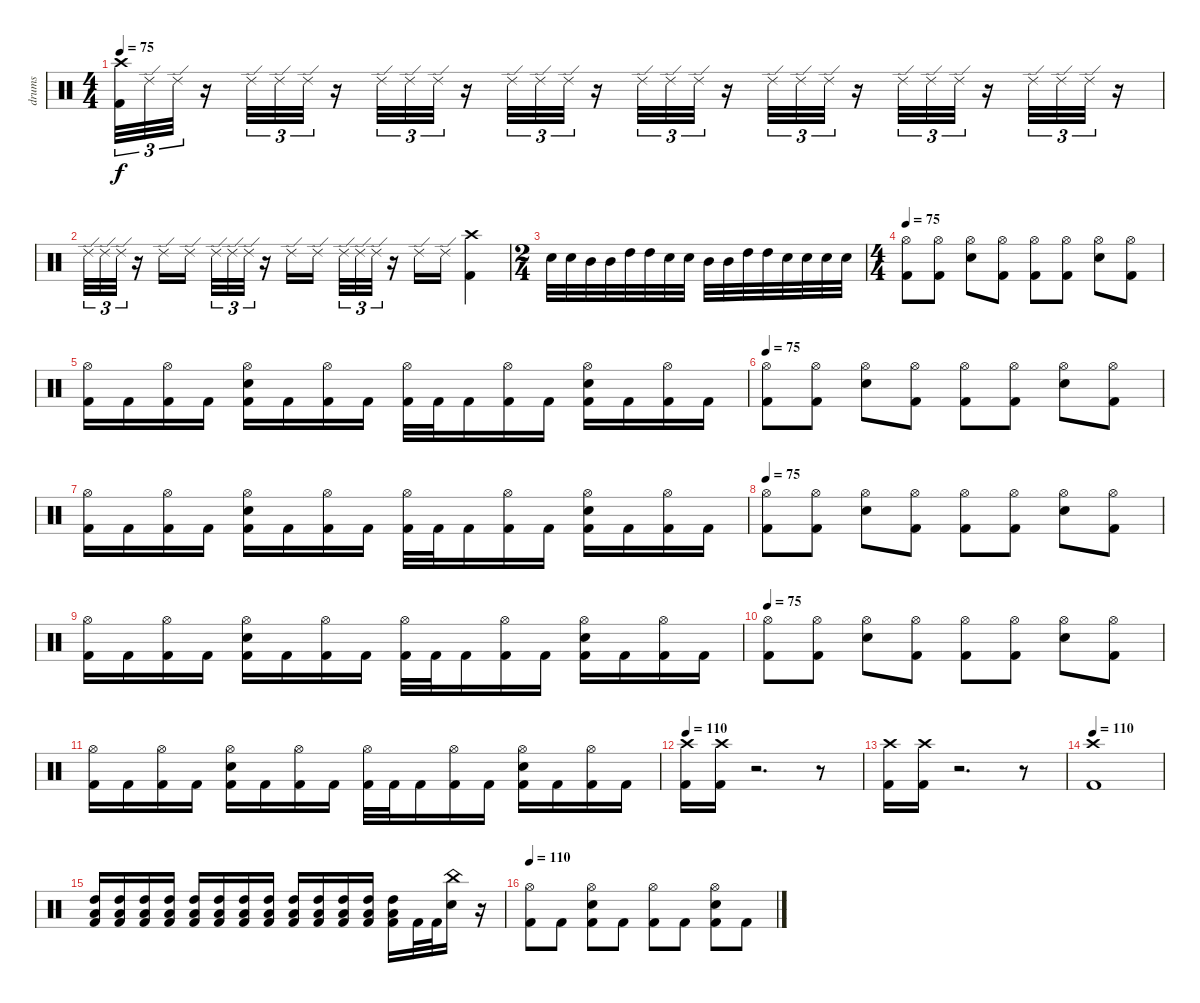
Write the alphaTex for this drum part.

\track ("drums" "drums") {instrument percussion}
\staff {score}
\articulation defaults
\ts (4 4)
\tempo 75
\clef neutral
\ks c
("Kick (hit) 2" "Crash high (hit)").32{tu (3 2) dy f} "Ride (edge) 2".32{tu (3 2)} "Ride (edge) 2".32{tu (3 2)} r.16 "Ride (edge) 2".32{tu (3 2)} "Ride (edge) 2".32{tu (3 2)} "Ride (edge) 2".32{tu (3 2)} r.16 "Ride (edge) 2".32{tu (3 2)} "Ride (edge) 2".32{tu (3 2)} "Ride (edge) 2".32{tu (3 2)} r.16 "Ride (edge) 2".32{tu (3 2)} "Ride (edge) 2".32{tu (3 2)} "Ride (edge) 2".32{tu (3 2)} r.16 "Ride (edge) 2".32{tu (3 2)} "Ride (edge) 2".32{tu (3 2)} "Ride (edge) 2".32{tu (3 2)} r.16 "Ride (edge) 2".32{tu (3 2)} "Ride (edge) 2".32{tu (3 2)} "Ride (edge) 2".32{tu (3 2)} r.16 "Ride (edge) 2".32{tu (3 2)} "Ride (edge) 2".32{tu (3 2)} "Ride (edge) 2".32{tu (3 2)} r.16 "Ride (edge) 2".32{tu (3 2)} "Ride (edge) 2".32{tu (3 2)} "Ride (edge) 2".32{tu (3 2)} r.16 |
"Ride (edge) 2".32{tu (3 2)} "Ride (edge) 2".32{tu (3 2)} "Ride (edge) 2".32{tu (3 2)} r.16 "Ride (edge) 2".16 "Ride (edge) 2".16 "Ride (edge) 2".32{tu (3 2)} "Ride (edge) 2".32{tu (3 2)} "Ride (edge) 2".32{tu (3 2)} r.16 "Ride (edge) 2".16 "Ride (edge) 2".16 "Ride (edge) 2".32{tu (3 2)} "Ride (edge) 2".32{tu (3 2)} "Ride (edge) 2".32{tu (3 2)} r.16 "Ride (edge) 2".16 "Ride (edge) 2".16 ("Kick (hit) 2" "Crash high (hit)").4 |
\ts (2 4)
"Electric Snare (hit)".32 "Electric Snare (hit)".32 "Mid Tom (hit)".32 "Mid Tom (hit)".32 "High Tom (hit)".32 "High Tom (hit)".32 "Electric Snare (hit)".32 "Electric Snare (hit)".32 "Mid Tom (hit)".32 "Mid Tom (hit)".32 "High Tom (hit)".32 "High Tom (hit)".32 "Electric Snare (hit)".32 "Electric Snare (hit)".32 "Electric Snare (hit)".32 "Electric Snare (hit)".32 |
\ts (4 4)
\tempo 75
("Kick (hit) 2" "Hi-Hat (open)").8 ("Kick (hit) 2" "Hi-Hat (open)").8 ("Electric Snare (hit)" "Hi-Hat (open)").8 ("Kick (hit) 2" "Hi-Hat (open)").8 ("Kick (hit) 2" "Hi-Hat (open)").8 ("Kick (hit) 2" "Hi-Hat (open)").8 ("Electric Snare (hit)" "Hi-Hat (open)").8 ("Kick (hit) 2" "Hi-Hat (open)").8 |
("Kick (hit) 2" "Hi-Hat (open)").16 "Kick (hit) 2".16 ("Kick (hit) 2" "Hi-Hat (open)").16 "Kick (hit) 2".16 ("Kick (hit) 2" "Electric Snare (hit)" "Hi-Hat (open)").16 "Kick (hit) 2".16 ("Kick (hit) 2" "Hi-Hat (open)").16 "Kick (hit) 2".16 ("Kick (hit) 2" "Hi-Hat (open)").32 "Kick (hit) 2".32 "Kick (hit) 2".16 ("Kick (hit) 2" "Hi-Hat (open)").16 "Kick (hit) 2".16 ("Kick (hit) 2" "Electric Snare (hit)" "Hi-Hat (open)").16 "Kick (hit) 2".16 ("Kick (hit) 2" "Hi-Hat (open)").16 "Kick (hit) 2".16 |
\tempo 75
("Kick (hit) 2" "Hi-Hat (open)").8 ("Kick (hit) 2" "Hi-Hat (open)").8 ("Electric Snare (hit)" "Hi-Hat (open)").8 ("Kick (hit) 2" "Hi-Hat (open)").8 ("Kick (hit) 2" "Hi-Hat (open)").8 ("Kick (hit) 2" "Hi-Hat (open)").8 ("Electric Snare (hit)" "Hi-Hat (open)").8 ("Kick (hit) 2" "Hi-Hat (open)").8 |
("Kick (hit) 2" "Hi-Hat (open)").16 "Kick (hit) 2".16 ("Kick (hit) 2" "Hi-Hat (open)").16 "Kick (hit) 2".16 ("Kick (hit) 2" "Electric Snare (hit)" "Hi-Hat (open)").16 "Kick (hit) 2".16 ("Kick (hit) 2" "Hi-Hat (open)").16 "Kick (hit) 2".16 ("Kick (hit) 2" "Hi-Hat (open)").32 "Kick (hit) 2".32 "Kick (hit) 2".16 ("Kick (hit) 2" "Hi-Hat (open)").16 "Kick (hit) 2".16 ("Kick (hit) 2" "Electric Snare (hit)" "Hi-Hat (open)").16 "Kick (hit) 2".16 ("Kick (hit) 2" "Hi-Hat (open)").16 "Kick (hit) 2".16 |
\tempo 75
("Kick (hit) 2" "Hi-Hat (open)").8 ("Kick (hit) 2" "Hi-Hat (open)").8 ("Electric Snare (hit)" "Hi-Hat (open)").8 ("Kick (hit) 2" "Hi-Hat (open)").8 ("Kick (hit) 2" "Hi-Hat (open)").8 ("Kick (hit) 2" "Hi-Hat (open)").8 ("Electric Snare (hit)" "Hi-Hat (open)").8 ("Kick (hit) 2" "Hi-Hat (open)").8 |
("Kick (hit) 2" "Hi-Hat (open)").16 "Kick (hit) 2".16 ("Kick (hit) 2" "Hi-Hat (open)").16 "Kick (hit) 2".16 ("Kick (hit) 2" "Electric Snare (hit)" "Hi-Hat (open)").16 "Kick (hit) 2".16 ("Kick (hit) 2" "Hi-Hat (open)").16 "Kick (hit) 2".16 ("Kick (hit) 2" "Hi-Hat (open)").32 "Kick (hit) 2".32 "Kick (hit) 2".16 ("Kick (hit) 2" "Hi-Hat (open)").16 "Kick (hit) 2".16 ("Kick (hit) 2" "Electric Snare (hit)" "Hi-Hat (open)").16 "Kick (hit) 2".16 ("Kick (hit) 2" "Hi-Hat (open)").16 "Kick (hit) 2".16 |
\tempo 75
("Kick (hit) 2" "Hi-Hat (open)").8 ("Kick (hit) 2" "Hi-Hat (open)").8 ("Electric Snare (hit)" "Hi-Hat (open)").8 ("Kick (hit) 2" "Hi-Hat (open)").8 ("Kick (hit) 2" "Hi-Hat (open)").8 ("Kick (hit) 2" "Hi-Hat (open)").8 ("Electric Snare (hit)" "Hi-Hat (open)").8 ("Kick (hit) 2" "Hi-Hat (open)").8 |
("Kick (hit) 2" "Hi-Hat (open)").16 "Kick (hit) 2".16 ("Kick (hit) 2" "Hi-Hat (open)").16 "Kick (hit) 2".16 ("Kick (hit) 2" "Electric Snare (hit)" "Hi-Hat (open)").16 "Kick (hit) 2".16 ("Kick (hit) 2" "Hi-Hat (open)").16 "Kick (hit) 2".16 ("Kick (hit) 2" "Hi-Hat (open)").32 "Kick (hit) 2".32 "Kick (hit) 2".16 ("Kick (hit) 2" "Hi-Hat (open)").16 "Kick (hit) 2".16 ("Kick (hit) 2" "Electric Snare (hit)" "Hi-Hat (open)").16 "Kick (hit) 2".16 ("Kick (hit) 2" "Hi-Hat (open)").16 "Kick (hit) 2".16 |
\tempo 110
("Kick (hit) 2" "Crash high (hit)").16 ("Kick (hit) 2" "Crash high (hit)").16 r.2{d} r.8 |
("Kick (hit) 2" "Crash high (hit)").16 ("Kick (hit) 2" "Crash high (hit)").16 r.2{d} r.8 |
\tempo 110
("Kick (hit) 2" "Crash high (hit)").1 |
("Kick (hit) 2" "High Tom (hit)" "Low Tom (hit)").16 ("Kick (hit) 2" "High Tom (hit)" "Low Tom (hit)").16 ("Kick (hit) 2" "High Tom (hit)" "Low Tom (hit)").16 ("Kick (hit) 2" "High Tom (hit)" "Low Tom (hit)").16 ("Kick (hit) 2" "High Tom (hit)" "Low Tom (hit)").16 ("Kick (hit) 2" "High Tom (hit)" "Low Tom (hit)").16 ("Kick (hit) 2" "High Tom (hit)" "Low Tom (hit)").16 ("Kick (hit) 2" "High Tom (hit)" "Low Tom (hit)").16 ("Kick (hit) 2" "High Tom (hit)" "Low Tom (hit)").16 ("Kick (hit) 2" "High Tom (hit)" "Low Tom (hit)").16 ("Kick (hit) 2" "High Tom (hit)" "Low Tom (hit)").16 ("Kick (hit) 2" "High Tom (hit)" "Low Tom (hit)").16 ("Kick (hit) 2" "High Tom (hit)" "Low Tom (hit)").16 "Kick (hit) 2".32 "Kick (hit) 2".32 ("Electric Snare (hit)" "China (hit)").16 r.16 |
\tempo 110
("Kick (hit) 2" "Hi-Hat (open)").8 "Kick (hit) 2".8 ("Kick (hit) 2" "Electric Snare (hit)" "Hi-Hat (open)").8 "Kick (hit) 2".8 ("Kick (hit) 2" "Hi-Hat (open)").8 "Kick (hit) 2".8 ("Kick (hit) 2" "Electric Snare (hit)" "Hi-Hat (open)").8 "Kick (hit) 2".8
